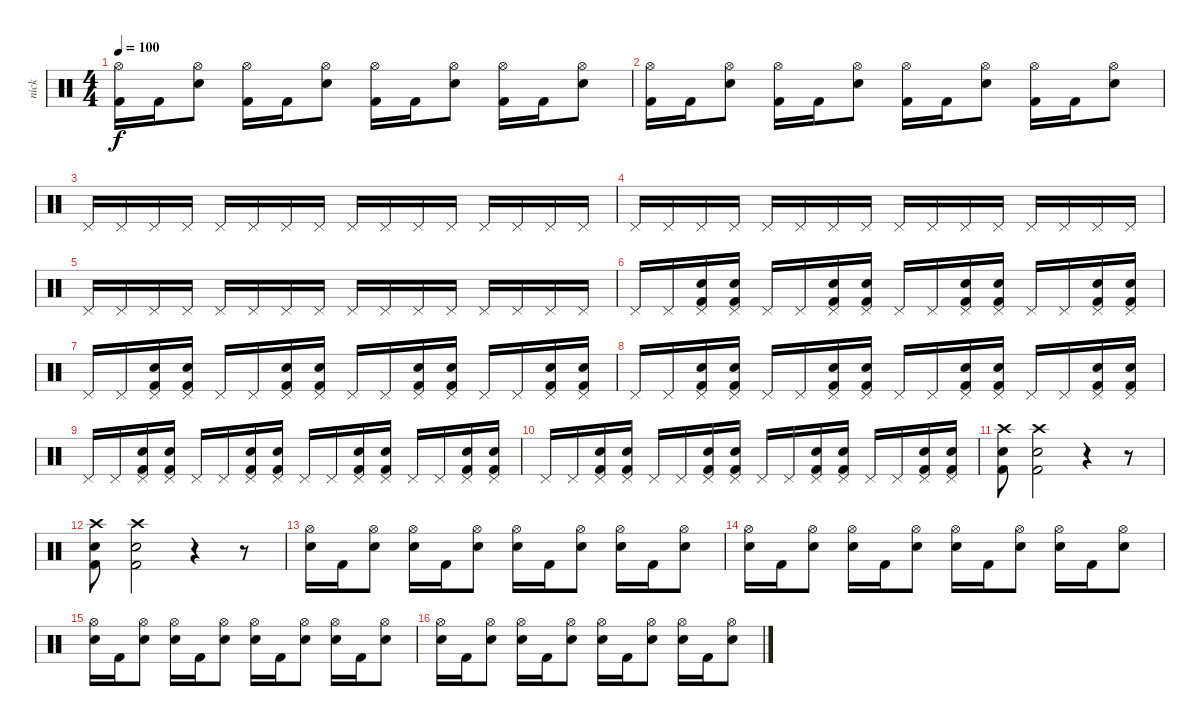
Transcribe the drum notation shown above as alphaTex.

\track ("nick" "nick") {instrument percussion}
\staff {score}
\articulation defaults
\ts (4 4)
\tempo 100
\clef neutral
\ks c
("Kick (hit) 2" "Hi-Hat (open)").16{dy f} "Kick (hit) 2".16 ("Snare (hit) 2" "Hi-Hat (open)").8 ("Kick (hit) 2" "Hi-Hat (open)").16 "Kick (hit) 2".16 ("Snare (hit) 2" "Hi-Hat (open)").8 ("Kick (hit) 2" "Hi-Hat (open)").16 "Kick (hit) 2".16 ("Snare (hit) 2" "Hi-Hat (open)").8 ("Kick (hit) 2" "Hi-Hat (open)").16 "Kick (hit) 2".16 ("Snare (hit) 2" "Hi-Hat (open)").8 |
("Kick (hit) 2" "Hi-Hat (open)").16 "Kick (hit) 2".16 ("Snare (hit) 2" "Hi-Hat (open)").8 ("Kick (hit) 2" "Hi-Hat (open)").16 "Kick (hit) 2".16 ("Snare (hit) 2" "Hi-Hat (open)").8 ("Kick (hit) 2" "Hi-Hat (open)").16 "Kick (hit) 2".16 ("Snare (hit) 2" "Hi-Hat (open)").8 ("Kick (hit) 2" "Hi-Hat (open)").16 "Kick (hit) 2".16 ("Snare (hit) 2" "Hi-Hat (open)").8 |
"Pedal Hi-Hat (hit)".16 "Pedal Hi-Hat (hit)".16 "Pedal Hi-Hat (hit)".16 "Pedal Hi-Hat (hit)".16 "Pedal Hi-Hat (hit)".16 "Pedal Hi-Hat (hit)".16 "Pedal Hi-Hat (hit)".16 "Pedal Hi-Hat (hit)".16 "Pedal Hi-Hat (hit)".16 "Pedal Hi-Hat (hit)".16 "Pedal Hi-Hat (hit)".16 "Pedal Hi-Hat (hit)".16 "Pedal Hi-Hat (hit)".16 "Pedal Hi-Hat (hit)".16 "Pedal Hi-Hat (hit)".16 "Pedal Hi-Hat (hit)".16 |
"Pedal Hi-Hat (hit)".16 "Pedal Hi-Hat (hit)".16 "Pedal Hi-Hat (hit)".16 "Pedal Hi-Hat (hit)".16 "Pedal Hi-Hat (hit)".16 "Pedal Hi-Hat (hit)".16 "Pedal Hi-Hat (hit)".16 "Pedal Hi-Hat (hit)".16 "Pedal Hi-Hat (hit)".16 "Pedal Hi-Hat (hit)".16 "Pedal Hi-Hat (hit)".16 "Pedal Hi-Hat (hit)".16 "Pedal Hi-Hat (hit)".16 "Pedal Hi-Hat (hit)".16 "Pedal Hi-Hat (hit)".16 "Pedal Hi-Hat (hit)".16 |
"Pedal Hi-Hat (hit)".16 "Pedal Hi-Hat (hit)".16 "Pedal Hi-Hat (hit)".16 "Pedal Hi-Hat (hit)".16 "Pedal Hi-Hat (hit)".16 "Pedal Hi-Hat (hit)".16 "Pedal Hi-Hat (hit)".16 "Pedal Hi-Hat (hit)".16 "Pedal Hi-Hat (hit)".16 "Pedal Hi-Hat (hit)".16 "Pedal Hi-Hat (hit)".16 "Pedal Hi-Hat (hit)".16 "Pedal Hi-Hat (hit)".16 "Pedal Hi-Hat (hit)".16 "Pedal Hi-Hat (hit)".16 "Pedal Hi-Hat (hit)".16 |
"Pedal Hi-Hat (hit)".16 "Pedal Hi-Hat (hit)".16 ("Pedal Hi-Hat (hit)" "Snare (hit) 2" "Kick (hit) 2").16 ("Pedal Hi-Hat (hit)" "Snare (hit) 2" "Kick (hit) 2").16 "Pedal Hi-Hat (hit)".16 "Pedal Hi-Hat (hit)".16 ("Pedal Hi-Hat (hit)" "Snare (hit) 2" "Kick (hit) 2").16 ("Pedal Hi-Hat (hit)" "Snare (hit) 2" "Kick (hit) 2").16 "Pedal Hi-Hat (hit)".16 "Pedal Hi-Hat (hit)".16 ("Pedal Hi-Hat (hit)" "Snare (hit) 2" "Kick (hit) 2").16 ("Pedal Hi-Hat (hit)" "Snare (hit) 2" "Kick (hit) 2").16 "Pedal Hi-Hat (hit)".16 "Pedal Hi-Hat (hit)".16 ("Pedal Hi-Hat (hit)" "Snare (hit) 2" "Kick (hit) 2").16 ("Pedal Hi-Hat (hit)" "Snare (hit) 2" "Kick (hit) 2").16 |
"Pedal Hi-Hat (hit)".16 "Pedal Hi-Hat (hit)".16 ("Pedal Hi-Hat (hit)" "Snare (hit) 2" "Kick (hit) 2").16 ("Pedal Hi-Hat (hit)" "Snare (hit) 2" "Kick (hit) 2").16 "Pedal Hi-Hat (hit)".16 "Pedal Hi-Hat (hit)".16 ("Pedal Hi-Hat (hit)" "Snare (hit) 2" "Kick (hit) 2").16 ("Pedal Hi-Hat (hit)" "Snare (hit) 2" "Kick (hit) 2").16 "Pedal Hi-Hat (hit)".16 "Pedal Hi-Hat (hit)".16 ("Pedal Hi-Hat (hit)" "Snare (hit) 2" "Kick (hit) 2").16 ("Pedal Hi-Hat (hit)" "Snare (hit) 2" "Kick (hit) 2").16 "Pedal Hi-Hat (hit)".16 "Pedal Hi-Hat (hit)".16 ("Pedal Hi-Hat (hit)" "Snare (hit) 2" "Kick (hit) 2").16 ("Pedal Hi-Hat (hit)" "Snare (hit) 2" "Kick (hit) 2").16 |
"Pedal Hi-Hat (hit)".16 "Pedal Hi-Hat (hit)".16 ("Pedal Hi-Hat (hit)" "Snare (hit) 2" "Kick (hit) 2").16 ("Pedal Hi-Hat (hit)" "Snare (hit) 2" "Kick (hit) 2").16 "Pedal Hi-Hat (hit)".16 "Pedal Hi-Hat (hit)".16 ("Pedal Hi-Hat (hit)" "Snare (hit) 2" "Kick (hit) 2").16 ("Pedal Hi-Hat (hit)" "Snare (hit) 2" "Kick (hit) 2").16 "Pedal Hi-Hat (hit)".16 "Pedal Hi-Hat (hit)".16 ("Pedal Hi-Hat (hit)" "Snare (hit) 2" "Kick (hit) 2").16 ("Pedal Hi-Hat (hit)" "Snare (hit) 2" "Kick (hit) 2").16 "Pedal Hi-Hat (hit)".16 "Pedal Hi-Hat (hit)".16 ("Pedal Hi-Hat (hit)" "Snare (hit) 2" "Kick (hit) 2").16 ("Pedal Hi-Hat (hit)" "Snare (hit) 2" "Kick (hit) 2").16 |
"Pedal Hi-Hat (hit)".16 "Pedal Hi-Hat (hit)".16 ("Pedal Hi-Hat (hit)" "Snare (hit) 2" "Kick (hit) 2").16 ("Pedal Hi-Hat (hit)" "Snare (hit) 2" "Kick (hit) 2").16 "Pedal Hi-Hat (hit)".16 "Pedal Hi-Hat (hit)".16 ("Pedal Hi-Hat (hit)" "Snare (hit) 2" "Kick (hit) 2").16 ("Pedal Hi-Hat (hit)" "Snare (hit) 2" "Kick (hit) 2").16 "Pedal Hi-Hat (hit)".16 "Pedal Hi-Hat (hit)".16 ("Pedal Hi-Hat (hit)" "Snare (hit) 2" "Kick (hit) 2").16 ("Pedal Hi-Hat (hit)" "Snare (hit) 2" "Kick (hit) 2").16 "Pedal Hi-Hat (hit)".16 "Pedal Hi-Hat (hit)".16 ("Pedal Hi-Hat (hit)" "Snare (hit) 2" "Kick (hit) 2").16 ("Pedal Hi-Hat (hit)" "Snare (hit) 2" "Kick (hit) 2").16 |
"Pedal Hi-Hat (hit)".16 "Pedal Hi-Hat (hit)".16 ("Pedal Hi-Hat (hit)" "Snare (hit) 2" "Kick (hit) 2").16 ("Pedal Hi-Hat (hit)" "Snare (hit) 2" "Kick (hit) 2").16 "Pedal Hi-Hat (hit)".16 "Pedal Hi-Hat (hit)".16 ("Pedal Hi-Hat (hit)" "Snare (hit) 2" "Kick (hit) 2").16 ("Pedal Hi-Hat (hit)" "Snare (hit) 2" "Kick (hit) 2").16 "Pedal Hi-Hat (hit)".16 "Pedal Hi-Hat (hit)".16 ("Pedal Hi-Hat (hit)" "Snare (hit) 2" "Kick (hit) 2").16 ("Pedal Hi-Hat (hit)" "Snare (hit) 2" "Kick (hit) 2").16 "Pedal Hi-Hat (hit)".16 "Pedal Hi-Hat (hit)".16 ("Pedal Hi-Hat (hit)" "Snare (hit) 2" "Kick (hit) 2").16 ("Pedal Hi-Hat (hit)" "Snare (hit) 2" "Kick (hit) 2").16 |
("Snare (hit) 2" "Kick (hit) 2" "Crash high (hit)").8 ("Snare (hit) 2" "Kick (hit) 2" "Crash high (hit)").2 r.4 r.8 |
("Snare (hit) 2" "Kick (hit) 2" "Crash high (hit)").8 ("Snare (hit) 2" "Kick (hit) 2" "Crash high (hit)").2 r.4 r.8 |
("Snare (hit) 2" "Hi-Hat (open)").16 "Kick (hit) 2".16 ("Snare (hit) 2" "Hi-Hat (open)").8 ("Snare (hit) 2" "Hi-Hat (open)").16 "Kick (hit) 2".16 ("Snare (hit) 2" "Hi-Hat (open)").8 ("Snare (hit) 2" "Hi-Hat (open)").16 "Kick (hit) 2".16 ("Snare (hit) 2" "Hi-Hat (open)").8 ("Snare (hit) 2" "Hi-Hat (open)").16 "Kick (hit) 2".16 ("Snare (hit) 2" "Hi-Hat (open)").8 |
("Snare (hit) 2" "Hi-Hat (open)").16 "Kick (hit) 2".16 ("Snare (hit) 2" "Hi-Hat (open)").8 ("Snare (hit) 2" "Hi-Hat (open)").16 "Kick (hit) 2".16 ("Snare (hit) 2" "Hi-Hat (open)").8 ("Snare (hit) 2" "Hi-Hat (open)").16 "Kick (hit) 2".16 ("Snare (hit) 2" "Hi-Hat (open)").8 ("Snare (hit) 2" "Hi-Hat (open)").16 "Kick (hit) 2".16 ("Snare (hit) 2" "Hi-Hat (open)").8 |
("Snare (hit) 2" "Hi-Hat (open)").16 "Kick (hit) 2".16 ("Snare (hit) 2" "Hi-Hat (open)").8 ("Snare (hit) 2" "Hi-Hat (open)").16 "Kick (hit) 2".16 ("Snare (hit) 2" "Hi-Hat (open)").8 ("Snare (hit) 2" "Hi-Hat (open)").16 "Kick (hit) 2".16 ("Snare (hit) 2" "Hi-Hat (open)").8 ("Snare (hit) 2" "Hi-Hat (open)").16 "Kick (hit) 2".16 ("Snare (hit) 2" "Hi-Hat (open)").8 |
("Snare (hit) 2" "Hi-Hat (open)").16 "Kick (hit) 2".16 ("Snare (hit) 2" "Hi-Hat (open)").8 ("Snare (hit) 2" "Hi-Hat (open)").16 "Kick (hit) 2".16 ("Snare (hit) 2" "Hi-Hat (open)").8 ("Snare (hit) 2" "Hi-Hat (open)").16 "Kick (hit) 2".16 ("Snare (hit) 2" "Hi-Hat (open)").8 ("Snare (hit) 2" "Hi-Hat (open)").16 "Kick (hit) 2".16 ("Snare (hit) 2" "Hi-Hat (open)").8
